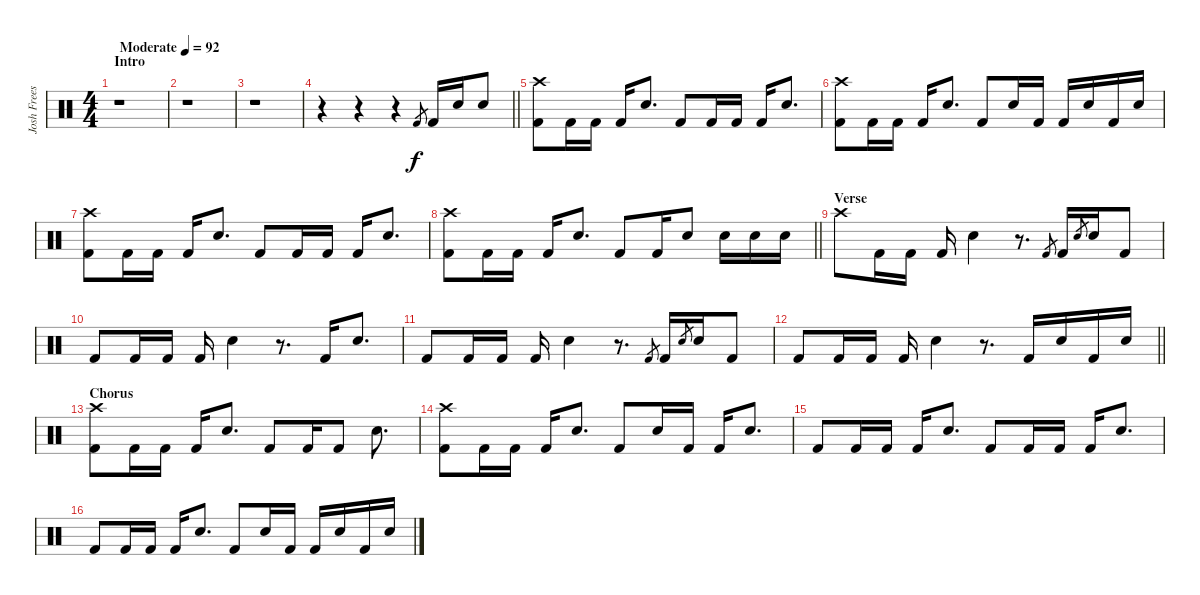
\track ("Josh Freese (Studio Drummer)" "Josh Frees") {instrument percussion}
\staff {score}
\articulation defaults
\ts (4 4)
\section ("" "Intro")
\tempo (92 "Moderate")
\clef neutral
\ks c
r.1{dy f} |
r.1 |
r.1 |
\barLineRight lightlight
r.4 r.4 r.4 "Kick (hit) 2".8{gr} "Kick (hit) 2".16 "Electric Snare (hit)".16 "Electric Snare (hit)".8 |
("Crash high (hit)" "Kick (hit) 2").8 "Kick (hit) 2".16 "Kick (hit) 2".16 "Kick (hit) 2".16 "Electric Snare (hit)".8{d} "Kick (hit) 2".8 "Kick (hit) 2".16 "Kick (hit) 2".16 "Kick (hit) 2".16 "Electric Snare (hit)".8{d} |
("Crash high (hit)" "Kick (hit) 2").8 "Kick (hit) 2".16 "Kick (hit) 2".16 "Kick (hit) 2".16 "Electric Snare (hit)".8{d} "Kick (hit) 2".8 "Electric Snare (hit)".16 "Kick (hit) 2".16 "Kick (hit) 2".16 "Electric Snare (hit)".16 "Kick (hit) 2".16 "Electric Snare (hit)".16 |
("Crash high (hit)" "Kick (hit) 2").8 "Kick (hit) 2".16 "Kick (hit) 2".16 "Kick (hit) 2".16 "Electric Snare (hit)".8{d} "Kick (hit) 2".8 "Kick (hit) 2".16 "Kick (hit) 2".16 "Kick (hit) 2".16 "Electric Snare (hit)".8{d} |
\barLineRight lightlight
("Crash high (hit)" "Kick (hit) 2").8 "Kick (hit) 2".16 "Kick (hit) 2".16 "Kick (hit) 2".16 "Electric Snare (hit)".8{d} "Kick (hit) 2".8 "Kick (hit) 2".16 "Electric Snare (hit)".8 "Electric Snare (hit)".16 "Electric Snare (hit)".16 "Electric Snare (hit)".16 |
\section ("" "Verse")
"Crash high (hit)".8 "Kick (hit) 2".16 "Kick (hit) 2".16 "Kick (hit) 2".16 "Electric Snare (hit)".4 r.8{d} "Kick (hit) 2".8{gr} "Kick (hit) 2".16 "Electric Snare (hit)".8{gr} "Electric Snare (hit)".16 "Kick (hit) 2".8 |
"Kick (hit) 2".8 "Kick (hit) 2".16 "Kick (hit) 2".16 "Kick (hit) 2".16 "Electric Snare (hit)".4 r.8{d} "Kick (hit) 2".16 "Electric Snare (hit)".8{d} |
"Kick (hit) 2".8 "Kick (hit) 2".16 "Kick (hit) 2".16 "Kick (hit) 2".16 "Electric Snare (hit)".4 r.8{d} "Kick (hit) 2".8{gr} "Kick (hit) 2".16 "Electric Snare (hit)".8{gr} "Electric Snare (hit)".16 "Kick (hit) 2".8 |
\barLineRight lightlight "Kick (hit) 2".8 "Kick (hit) 2".16 "Kick (hit) 2".16 "Kick (hit) 2".16 "Electric Snare (hit)".4
r.8{d} "Kick (hit) 2".16 "Electric Snare (hit)".16 "Kick (hit) 2".16 "Electric Snare (hit)".16 |
\section ("" "Chorus")
("Crash high (hit)" "Kick (hit) 2").8{volume 12} "Kick (hit) 2".16 "Kick (hit) 2".16 "Kick (hit) 2".16 "Electric Snare (hit)".8{d} "Kick (hit) 2".8 "Kick (hit) 2".16 "Kick (hit) 2".8 "Electric Snare (hit)".8{d} |
("Crash high (hit)" "Kick (hit) 2").8 "Kick (hit) 2".16 "Kick (hit) 2".16 "Kick (hit) 2".16 "Electric Snare (hit)".8{d} "Kick (hit) 2".8 "Electric Snare (hit)".16 "Kick (hit) 2".16 "Kick (hit) 2".16 "Electric Snare (hit)".8{d} |
"Kick (hit) 2".8 "Kick (hit) 2".16 "Kick (hit) 2".16 "Kick (hit) 2".16 "Electric Snare (hit)".8{d} "Kick (hit) 2".8 "Kick (hit) 2".16 "Kick (hit) 2".16 "Kick (hit) 2".16 "Electric Snare (hit)".8{d} |
"Kick (hit) 2".8 "Kick (hit) 2".16 "Kick (hit) 2".16 "Kick (hit) 2".16 "Electric Snare (hit)".8{d} "Kick (hit) 2".8 "Electric Snare (hit)".16 "Kick (hit) 2".16 "Kick (hit) 2".16 "Electric Snare (hit)".16 "Kick (hit) 2".16 "Electric Snare (hit)".16
